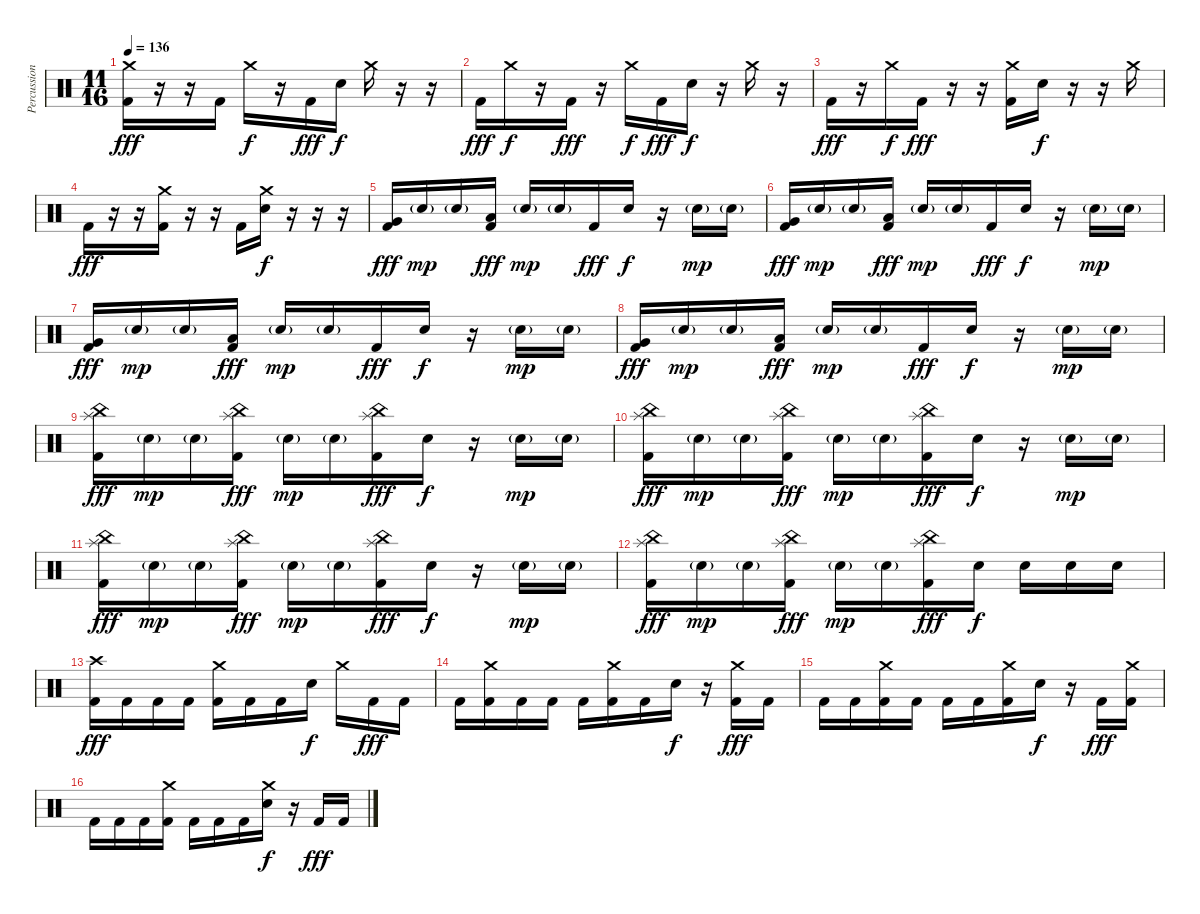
\track ("Percussion" "Percussion") {instrument percussion}
\staff {score}
\articulation defaults
\ts (11 16)
\tempo 136
\clef neutral
\ks c
("Crash medium (hit)" "Kick (hit) 2").16{dy fff} r.16 r.16 "Kick (hit) 2".16 "Crash medium (hit)".16{dy f} r.16 "Kick (hit) 2".16{dy fff} "Electric Snare (hit)".16{dy f} "Crash medium (hit)".16 r.16 r.16 |
"Kick (hit) 2".16{dy fff} "Crash medium (hit)".16{dy f} r.16 "Kick (hit) 2".16{dy fff} r.16 "Crash medium (hit)".16{dy f} "Kick (hit) 2".16{dy fff} "Electric Snare (hit)".16{dy f} r.16 "Crash medium (hit)".16 r.16 |
"Kick (hit) 2".16{dy fff} r.16 "Crash medium (hit)".16{dy f} "Kick (hit) 2".16{dy fff} r.16 r.16 ("Crash medium (hit)" "Kick (hit) 2").16 "Electric Snare (hit)".16{dy f} r.16 r.16 "Crash medium (hit)".16 |
"Kick (hit) 2".16{dy fff} r.16 r.16 ("Crash medium (hit)" "Kick (hit) 2").16 r.16 r.16 "Kick (hit) 2".16 ("Crash medium (hit)" "Electric Snare (hit)").16{dy f} r.16 r.16 r.16 |
("Very Low Tom (hit)" "Kick (hit) 2").16{dy fff} "Electric Snare (hit)"{g}.16{dy mp} "Electric Snare (hit)"{g}.16 ("Low Floor Tom (hit)" "Kick (hit) 2").16{dy fff} "Electric Snare (hit)"{g}.16{dy mp} "Electric Snare (hit)"{g}.16 "Kick (hit) 2".16{dy fff} "Electric Snare (hit)".16{dy f} r.16 "Electric Snare (hit)"{g}.16{dy mp} "Electric Snare (hit)"{g}.16 |
("Very Low Tom (hit)" "Kick (hit) 2").16{dy fff} "Electric Snare (hit)"{g}.16{dy mp} "Electric Snare (hit)"{g}.16 ("Low Floor Tom (hit)" "Kick (hit) 2").16{dy fff} "Electric Snare (hit)"{g}.16{dy mp} "Electric Snare (hit)"{g}.16 "Kick (hit) 2".16{dy fff} "Electric Snare (hit)".16{dy f} r.16 "Electric Snare (hit)"{g}.16{dy mp} "Electric Snare (hit)"{g}.16 |
("Very Low Tom (hit)" "Kick (hit) 2").16{dy fff} "Electric Snare (hit)"{g}.16{dy mp} "Electric Snare (hit)"{g}.16 ("Low Floor Tom (hit)" "Kick (hit) 2").16{dy fff} "Electric Snare (hit)"{g}.16{dy mp} "Electric Snare (hit)"{g}.16 "Kick (hit) 2".16{dy fff} "Electric Snare (hit)".16{dy f} r.16 "Electric Snare (hit)"{g}.16{dy mp} "Electric Snare (hit)"{g}.16 |
("Very Low Tom (hit)" "Kick (hit) 2").16{dy fff} "Electric Snare (hit)"{g}.16{dy mp} "Electric Snare (hit)"{g}.16 ("Low Floor Tom (hit)" "Kick (hit) 2").16{dy fff} "Electric Snare (hit)"{g}.16{dy mp} "Electric Snare (hit)"{g}.16 "Kick (hit) 2".16{dy fff} "Electric Snare (hit)".16{dy f} r.16 "Electric Snare (hit)"{g}.16{dy mp} "Electric Snare (hit)"{g}.16 |
("Splash (hit)" "China (hit)" "Kick (hit) 2").16{dy fff} "Electric Snare (hit)"{g}.16{dy mp} "Electric Snare (hit)"{g}.16 ("Splash (hit)" "China (hit)" "Kick (hit) 2").16{dy fff} "Electric Snare (hit)"{g}.16{dy mp} "Electric Snare (hit)"{g}.16 ("Splash (hit)" "China (hit)" "Kick (hit) 2").16{dy fff} "Electric Snare (hit)".16{dy f} r.16 "Electric Snare (hit)"{g}.16{dy mp} "Electric Snare (hit)"{g}.16 |
("Splash (hit)" "China (hit)" "Kick (hit) 2").16{dy fff} "Electric Snare (hit)"{g}.16{dy mp} "Electric Snare (hit)"{g}.16 ("Splash (hit)" "China (hit)" "Kick (hit) 2").16{dy fff} "Electric Snare (hit)"{g}.16{dy mp} "Electric Snare (hit)"{g}.16 ("Splash (hit)" "China (hit)" "Kick (hit) 2").16{dy fff} "Electric Snare (hit)".16{dy f} r.16 "Electric Snare (hit)"{g}.16{dy mp} "Electric Snare (hit)"{g}.16 |
("Splash (hit)" "China (hit)" "Kick (hit) 2").16{dy fff} "Electric Snare (hit)"{g}.16{dy mp} "Electric Snare (hit)"{g}.16 ("Splash (hit)" "China (hit)" "Kick (hit) 2").16{dy fff} "Electric Snare (hit)"{g}.16{dy mp} "Electric Snare (hit)"{g}.16 ("Splash (hit)" "China (hit)" "Kick (hit) 2").16{dy fff} "Electric Snare (hit)".16{dy f} r.16 "Electric Snare (hit)"{g}.16{dy mp} "Electric Snare (hit)"{g}.16 |
("Splash (hit)" "China (hit)" "Kick (hit) 2").16{dy fff} "Electric Snare (hit)"{g}.16{dy mp} "Electric Snare (hit)"{g}.16 ("Splash (hit)" "China (hit)" "Kick (hit) 2").16{dy fff} "Electric Snare (hit)"{g}.16{dy mp} "Electric Snare (hit)"{g}.16 ("Splash (hit)" "China (hit)" "Kick (hit) 2").16{dy fff} "Electric Snare (hit)".16{dy f} "Electric Snare (hit)".16 "Electric Snare (hit)".16 "Electric Snare (hit)".16 |
("Crash high (hit)" "Kick (hit) 2").16{dy fff} "Kick (hit) 2".16 "Kick (hit) 2".16 "Kick (hit) 2".16 ("Crash medium (hit)" "Kick (hit) 2").16 "Kick (hit) 2".16 "Kick (hit) 2".16 "Electric Snare (hit)".16{dy f} "Crash medium (hit)".16 "Kick (hit) 2".16{dy fff} "Kick (hit) 2".16 |
"Kick (hit) 2".16 ("Crash medium (hit)" "Kick (hit) 2").16 "Kick (hit) 2".16 "Kick (hit) 2".16 "Kick (hit) 2".16 ("Crash medium (hit)" "Kick (hit) 2").16 "Kick (hit) 2".16 "Electric Snare (hit)".16{dy f} r.16 ("Crash medium (hit)" "Kick (hit) 2").16{dy fff} "Kick (hit) 2".16 |
"Kick (hit) 2".16 "Kick (hit) 2".16 ("Crash medium (hit)" "Kick (hit) 2").16 "Kick (hit) 2".16 "Kick (hit) 2".16 "Kick (hit) 2".16 ("Crash medium (hit)" "Kick (hit) 2").16 "Electric Snare (hit)".16{dy f} r.16 "Kick (hit) 2".16{dy fff} ("Crash medium (hit)" "Kick (hit) 2").16 |
"Kick (hit) 2".16 "Kick (hit) 2".16 "Kick (hit) 2".16 ("Crash medium (hit)" "Kick (hit) 2").16 "Kick (hit) 2".16 "Kick (hit) 2".16 "Kick (hit) 2".16 ("Crash medium (hit)" "Electric Snare (hit)").16{dy f} r.16 "Kick (hit) 2".16{dy fff} "Kick (hit) 2".16
